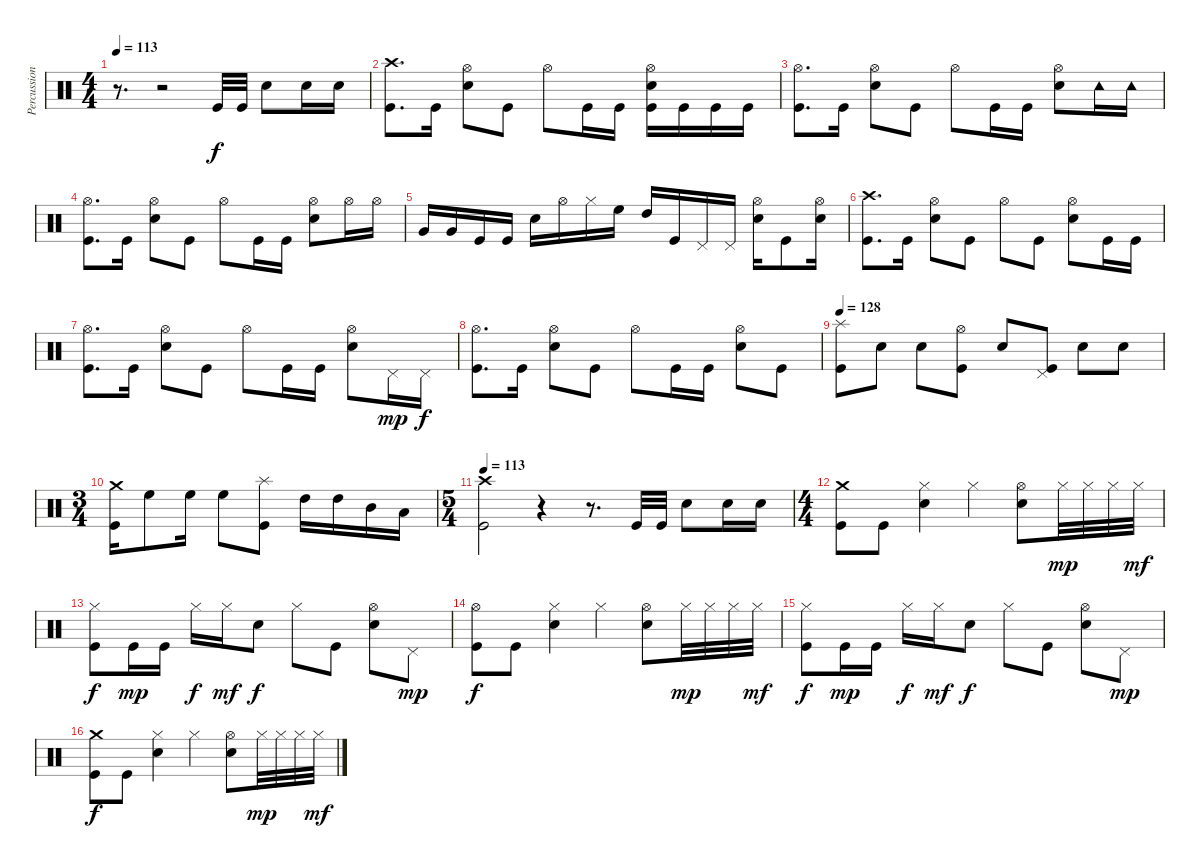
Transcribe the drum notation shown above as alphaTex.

\track ("Percussioni" "Percussion") {instrument percussion}
\staff {score}
\articulation defaults
\ts (4 4)
\tempo 113
\clef neutral
\ks c
r.8{d dy f} r.2 "Kick (hit)".32 "Kick (hit)".32 "Snare (hit) 2".8 "Snare (hit) 2".16 "Snare (hit) 2".16 |
("Crash high (hit)" "Kick (hit)").8{d} "Kick (hit)".16 ("Hi-Hat (open)" "Snare (hit) 2").8 "Kick (hit)".8 "Hi-Hat (open)".8 "Kick (hit)".16 "Kick (hit)".16 ("Hi-Hat (open)" "Snare (hit) 2" "Kick (hit)").16 "Kick (hit)".16 "Kick (hit)".16 "Kick (hit)".16 |
("Hi-Hat (open)" "Kick (hit)").8{d} "Kick (hit)".16 ("Hi-Hat (open)" "Snare (hit) 2").8 "Kick (hit)".8 "Hi-Hat (open)".8 "Kick (hit)".16 "Kick (hit)".16 ("Hi-Hat (open)" "Snare (hit) 2").8 "Tambourine (hit)".16 "Tambourine (hit)".16 |
("Hi-Hat (open)" "Kick (hit)").8{d} "Kick (hit)".16 ("Hi-Hat (open)" "Snare (hit) 2").8 "Kick (hit)".8 "Hi-Hat (open)".8 "Kick (hit)".16 "Kick (hit)".16 ("Hi-Hat (open)" "Snare (hit) 2").8 "Hi-Hat (open)".16 "Hi-Hat (open)".16 |
"Very Low Tom (hit)".16 "Very Low Tom (hit)".16 "Kick (hit)".16 "Kick (hit)".16 "Snare (hit) 2".16 "Hi-Hat (open)".16 "Hi-Hat (closed)".16 "High Floor Tom (hit)".16 "High Tom (hit)".16 "Kick (hit)".16 "Pedal Hi-Hat (hit)".16 "Pedal Hi-Hat (hit)".16 ("Hi-Hat (open)" "Snare (hit) 2").16 "Kick (hit)".8 ("Hi-Hat (open)" "Snare (hit) 2").16 |
("Crash high (hit)" "Kick (hit)").8{d} "Kick (hit)".16 ("Hi-Hat (open)" "Snare (hit) 2").8 "Kick (hit)".8 "Hi-Hat (open)".8 "Kick (hit)".8 ("Hi-Hat (open)" "Snare (hit) 2").8 "Kick (hit)".16 "Kick (hit)".16 |
("Hi-Hat (open)" "Kick (hit)").8{d} "Kick (hit)".16 ("Hi-Hat (open)" "Snare (hit) 2").8 "Kick (hit)".8 "Hi-Hat (open)".8 "Kick (hit)".16 "Kick (hit)".16 ("Hi-Hat (open)" "Snare (hit) 2").8 "Pedal Hi-Hat (hit)".16{dy mp} "Pedal Hi-Hat (hit)".16{dy f} |
("Hi-Hat (open)" "Kick (hit)").8{d} "Kick (hit)".16 ("Hi-Hat (open)" "Snare (hit) 2").8 "Kick (hit)".8 "Hi-Hat (open)".8 "Kick (hit)".16 "Kick (hit)".16 ("Hi-Hat (open)" "Snare (hit) 2").8 "Kick (hit)".8 |
\tempo 128
("Splash (hit)" "Kick (hit)").8 "Snare (hit) 2".8 "Snare (hit) 2".8 ("Hi-Hat (open)" "Kick (hit)").8 "Snare (hit) 2".8 ("Pedal Hi-Hat (hit)" "Kick (hit)").8 "Snare (hit) 2".8 "Snare (hit) 2".8 |
\ts (3 4)
("Crash medium (hit)" "Kick (hit)").16 "High Floor Tom (hit)".8 "High Floor Tom (hit)".16 "High Floor Tom (hit)".8 ("Splash (hit)" "Kick (hit)").8 "High Tom (hit)".16 "High Tom (hit)".16 "Mid Tom (hit)".16 "Low Tom (hit)".16 |
\ts (5 4)
\tempo 113
("Crash high (hit)" "Kick (hit)").2 r.4 r.8{d} "Kick (hit)".32 "Kick (hit)".32 "Snare (hit) 2".8 "Snare (hit) 2".16 "Snare (hit) 2".16 |
\ts (4 4)
("Crash medium (hit)" "Kick (hit)").8 "Kick (hit)".8 ("Hi-Hat (closed)" "Snare (hit) 2").4 "Hi-Hat (closed)".4 ("Hi-Hat (open)" "Snare (hit) 2").8 "Hi-Hat (closed)".32{dy mp} "Hi-Hat (closed)".32 "Hi-Hat (closed)".32 "Hi-Hat (closed)".32{dy mf} |
("Hi-Hat (closed)" "Kick (hit)").8{dy f} "Kick (hit)".16{dy mp} "Kick (hit)".16 "Hi-Hat (closed)".16{dy f} "Hi-Hat (closed)".16{dy mf} "Snare (hit) 2".8{dy f} "Hi-Hat (closed)".8 "Kick (hit)".8 ("Hi-Hat (open)" "Snare (hit) 2").8 "Pedal Hi-Hat (hit)".8{dy mp} |
("Hi-Hat (open)" "Kick (hit)").8{dy f} "Kick (hit)".8 ("Hi-Hat (closed)" "Snare (hit) 2").4 "Hi-Hat (closed)".4 ("Hi-Hat (open)" "Snare (hit) 2").8 "Hi-Hat (closed)".32{dy mp} "Hi-Hat (closed)".32 "Hi-Hat (closed)".32 "Hi-Hat (closed)".32{dy mf} |
("Hi-Hat (closed)" "Kick (hit)").8{dy f} "Kick (hit)".16{dy mp} "Kick (hit)".16 "Hi-Hat (closed)".16{dy f} "Hi-Hat (closed)".16{dy mf} "Snare (hit) 2".8{dy f} "Hi-Hat (closed)".8 "Kick (hit)".8 ("Hi-Hat (open)" "Snare (hit) 2").8 "Pedal Hi-Hat (hit)".8{dy mp} |
("Crash medium (hit)" "Kick (hit)").8{dy f} "Kick (hit)".8 ("Hi-Hat (closed)" "Snare (hit) 2").4 "Hi-Hat (closed)".4 ("Hi-Hat (open)" "Snare (hit) 2").8 "Hi-Hat (closed)".32{dy mp} "Hi-Hat (closed)".32 "Hi-Hat (closed)".32 "Hi-Hat (closed)".32{dy mf}
